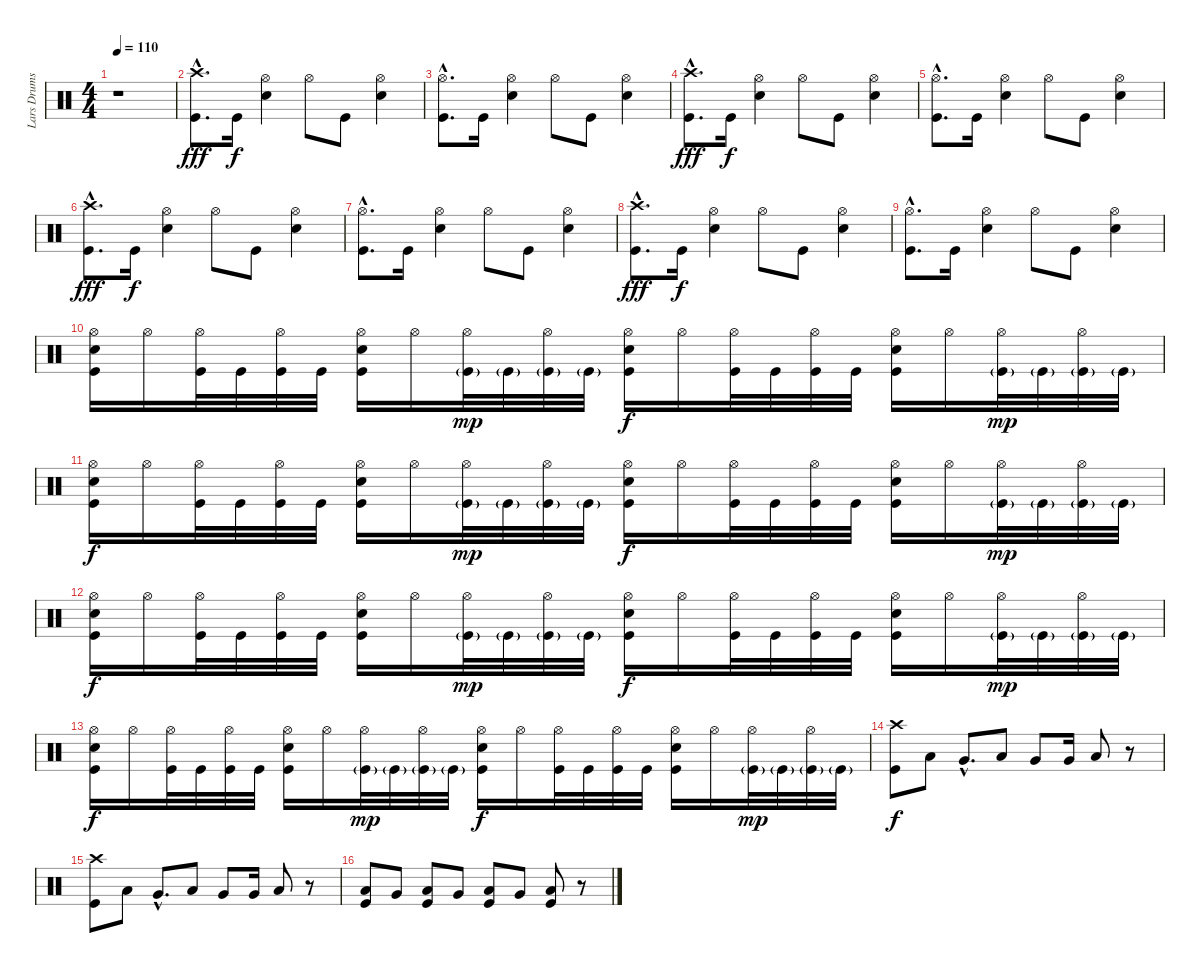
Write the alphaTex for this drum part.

\track ("Lars Drums" "Lars Drums") {instrument percussion}
\staff {score}
\articulation defaults
\ts (4 4)
\tempo 110
\clef neutral
\ks c
r.1{dy f} |
("Crash high (hit)"{hac} "Kick (hit)"{hac}).8{d dy fff} "Kick (hit)".16{dy f} ("Hi-Hat (open)" "Electric Snare (hit)").4 "Hi-Hat (open)".8 "Kick (hit)".8 ("Hi-Hat (open)" "Electric Snare (hit)").4 |
("Hi-Hat (open)"{hac} "Kick (hit)"{hac}).8{d} "Kick (hit)".16 ("Hi-Hat (open)" "Electric Snare (hit)").4 "Hi-Hat (open)".8 "Kick (hit)".8 ("Hi-Hat (open)" "Electric Snare (hit)").4 |
("Crash high (hit)"{hac} "Kick (hit)"{hac}).8{d dy fff} "Kick (hit)".16{dy f} ("Hi-Hat (open)" "Electric Snare (hit)").4 "Hi-Hat (open)".8 "Kick (hit)".8 ("Hi-Hat (open)" "Electric Snare (hit)").4 |
("Hi-Hat (open)"{hac} "Kick (hit)"{hac}).8{d} "Kick (hit)".16 ("Hi-Hat (open)" "Electric Snare (hit)").4 "Hi-Hat (open)".8 "Kick (hit)".8 ("Hi-Hat (open)" "Electric Snare (hit)").4 |
("Crash high (hit)"{hac} "Kick (hit)"{hac}).8{d dy fff} "Kick (hit)".16{dy f} ("Hi-Hat (open)" "Electric Snare (hit)").4 "Hi-Hat (open)".8 "Kick (hit)".8 ("Hi-Hat (open)" "Electric Snare (hit)").4 |
("Hi-Hat (open)"{hac} "Kick (hit)"{hac}).8{d} "Kick (hit)".16 ("Hi-Hat (open)" "Electric Snare (hit)").4 "Hi-Hat (open)".8 "Kick (hit)".8 ("Hi-Hat (open)" "Electric Snare (hit)").4 |
("Crash high (hit)"{hac} "Kick (hit)"{hac}).8{d dy fff} "Kick (hit)".16{dy f} ("Hi-Hat (open)" "Electric Snare (hit)").4 "Hi-Hat (open)".8 "Kick (hit)".8 ("Hi-Hat (open)" "Electric Snare (hit)").4 |
("Hi-Hat (open)"{hac} "Kick (hit)"{hac}).8{d} "Kick (hit)".16 ("Hi-Hat (open)" "Electric Snare (hit)").4 "Hi-Hat (open)".8 "Kick (hit)".8 ("Hi-Hat (open)" "Electric Snare (hit)").4 |
("Hi-Hat (open)" "Electric Snare (hit)" "Kick (hit)").16 "Hi-Hat (open)".16 ("Hi-Hat (open)" "Kick (hit)").32 "Kick (hit)".32 ("Hi-Hat (open)" "Kick (hit)").32 "Kick (hit)".32 ("Hi-Hat (open)" "Electric Snare (hit)" "Kick (hit)").16 "Hi-Hat (open)".16 ("Hi-Hat (open)" "Kick (hit)"{g}).32{dy mp} "Kick (hit)"{g}.32 ("Hi-Hat (open)" "Kick (hit)"{g}).32 "Kick (hit)"{g}.32 ("Hi-Hat (open)" "Electric Snare (hit)" "Kick (hit)").16{dy f} "Hi-Hat (open)".16 ("Hi-Hat (open)" "Kick (hit)").32 "Kick (hit)".32 ("Hi-Hat (open)" "Kick (hit)").32 "Kick (hit)".32 ("Hi-Hat (open)" "Electric Snare (hit)" "Kick (hit)").16 "Hi-Hat (open)".16 ("Hi-Hat (open)" "Kick (hit)"{g}).32{dy mp} "Kick (hit)"{g}.32 ("Hi-Hat (open)" "Kick (hit)"{g}).32 "Kick (hit)"{g}.32 |
("Hi-Hat (open)" "Electric Snare (hit)" "Kick (hit)").16{dy f} "Hi-Hat (open)".16 ("Hi-Hat (open)" "Kick (hit)").32 "Kick (hit)".32 ("Hi-Hat (open)" "Kick (hit)").32 "Kick (hit)".32 ("Hi-Hat (open)" "Electric Snare (hit)" "Kick (hit)").16 "Hi-Hat (open)".16 ("Hi-Hat (open)" "Kick (hit)"{g}).32{dy mp} "Kick (hit)"{g}.32 ("Hi-Hat (open)" "Kick (hit)"{g}).32 "Kick (hit)"{g}.32 ("Hi-Hat (open)" "Electric Snare (hit)" "Kick (hit)").16{dy f} "Hi-Hat (open)".16 ("Hi-Hat (open)" "Kick (hit)").32 "Kick (hit)".32 ("Hi-Hat (open)" "Kick (hit)").32 "Kick (hit)".32 ("Hi-Hat (open)" "Electric Snare (hit)" "Kick (hit)").16 "Hi-Hat (open)".16 ("Hi-Hat (open)" "Kick (hit)"{g}).32{dy mp} "Kick (hit)"{g}.32 ("Hi-Hat (open)" "Kick (hit)"{g}).32 "Kick (hit)"{g}.32 |
("Hi-Hat (open)" "Electric Snare (hit)" "Kick (hit)").16{dy f} "Hi-Hat (open)".16 ("Hi-Hat (open)" "Kick (hit)").32 "Kick (hit)".32 ("Hi-Hat (open)" "Kick (hit)").32 "Kick (hit)".32 ("Hi-Hat (open)" "Electric Snare (hit)" "Kick (hit)").16 "Hi-Hat (open)".16 ("Hi-Hat (open)" "Kick (hit)"{g}).32{dy mp} "Kick (hit)"{g}.32 ("Hi-Hat (open)" "Kick (hit)"{g}).32 "Kick (hit)"{g}.32 ("Hi-Hat (open)" "Electric Snare (hit)" "Kick (hit)").16{dy f} "Hi-Hat (open)".16 ("Hi-Hat (open)" "Kick (hit)").32 "Kick (hit)".32 ("Hi-Hat (open)" "Kick (hit)").32 "Kick (hit)".32 ("Hi-Hat (open)" "Electric Snare (hit)" "Kick (hit)").16 "Hi-Hat (open)".16 ("Hi-Hat (open)" "Kick (hit)"{g}).32{dy mp} "Kick (hit)"{g}.32 ("Hi-Hat (open)" "Kick (hit)"{g}).32 "Kick (hit)"{g}.32 |
("Hi-Hat (open)" "Electric Snare (hit)" "Kick (hit)").16{dy f} "Hi-Hat (open)".16 ("Hi-Hat (open)" "Kick (hit)").32 "Kick (hit)".32 ("Hi-Hat (open)" "Kick (hit)").32 "Kick (hit)".32 ("Hi-Hat (open)" "Electric Snare (hit)" "Kick (hit)").16 "Hi-Hat (open)".16 ("Hi-Hat (open)" "Kick (hit)"{g}).32{dy mp} "Kick (hit)"{g}.32 ("Hi-Hat (open)" "Kick (hit)"{g}).32 "Kick (hit)"{g}.32 ("Hi-Hat (open)" "Electric Snare (hit)" "Kick (hit)").16{dy f} "Hi-Hat (open)".16 ("Hi-Hat (open)" "Kick (hit)").32 "Kick (hit)".32 ("Hi-Hat (open)" "Kick (hit)").32 "Kick (hit)".32 ("Hi-Hat (open)" "Electric Snare (hit)" "Kick (hit)").16 "Hi-Hat (open)".16 ("Hi-Hat (open)" "Kick (hit)"{g}).32{dy mp} "Kick (hit)"{g}.32 ("Hi-Hat (open)" "Kick (hit)"{g}).32 "Kick (hit)"{g}.32 |
("Crash high (hit)" "Kick (hit)").8{dy f} "Low Floor Tom (hit)".8 "Very Low Tom (hit)"{hac}.8{d} "Low Floor Tom (hit)".8 "Very Low Tom (hit)".8 "Very Low Tom (hit)".16 "Low Floor Tom (hit)".8 r.8 |
("Crash high (hit)" "Kick (hit)").8 "Low Floor Tom (hit)".8 "Very Low Tom (hit)"{hac}.8{d} "Low Floor Tom (hit)".8 "Very Low Tom (hit)".8 "Very Low Tom (hit)".16 "Low Floor Tom (hit)".8 r.8 |
("Low Floor Tom (hit)" "Kick (hit)").8 "Very Low Tom (hit)".8 ("Low Floor Tom (hit)" "Kick (hit)").8 "Very Low Tom (hit)".8 ("Low Floor Tom (hit)" "Kick (hit)").8 "Very Low Tom (hit)".8 ("Low Floor Tom (hit)" "Kick (hit)").8 r.8
